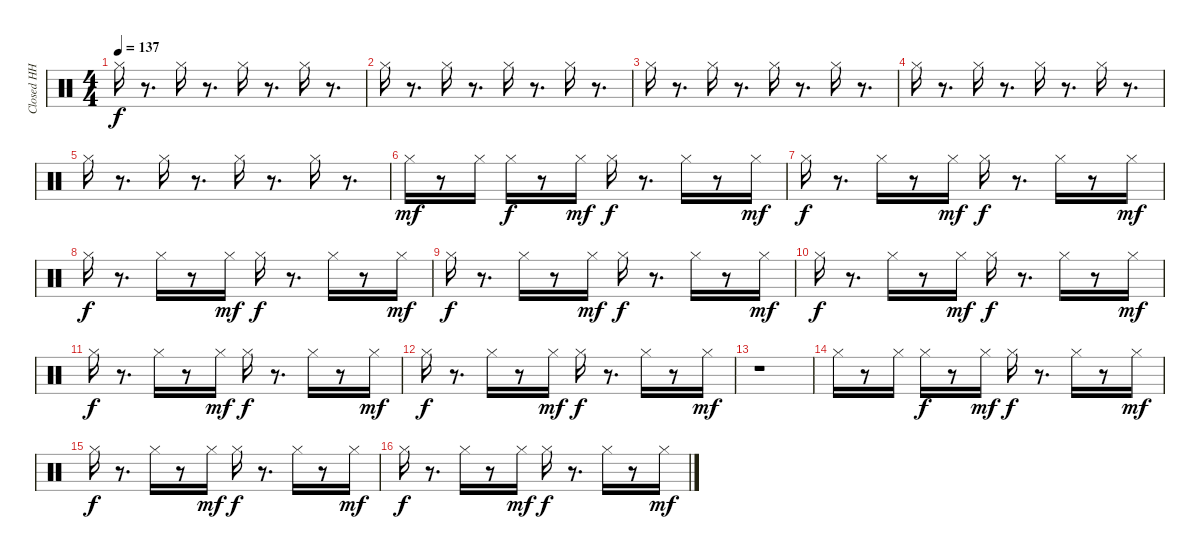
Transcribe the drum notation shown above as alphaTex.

\track ("Closed HH" "Closed HH") {instrument percussion}
\staff {score}
\articulation defaults
\ts (4 4)
\tempo 137
\clef neutral
\ks c "Hi-Hat (closed)".16{dy f}
r.8{d} "Hi-Hat (closed)".16 r.8{d} "Hi-Hat (closed)".16 r.8{d} "Hi-Hat (closed)".16 r.8{d} |
"Hi-Hat (closed)".16 r.8{d} "Hi-Hat (closed)".16 r.8{d} "Hi-Hat (closed)".16 r.8{d} "Hi-Hat (closed)".16 r.8{d} |
"Hi-Hat (closed)".16 r.8{d} "Hi-Hat (closed)".16 r.8{d} "Hi-Hat (closed)".16 r.8{d} "Hi-Hat (closed)".16 r.8{d} |
"Hi-Hat (closed)".16 r.8{d} "Hi-Hat (closed)".16 r.8{d} "Hi-Hat (closed)".16 r.8{d} "Hi-Hat (closed)".16 r.8{d} |
"Hi-Hat (closed)".16 r.8{d} "Hi-Hat (closed)".16 r.8{d} "Hi-Hat (closed)".16 r.8{d} "Hi-Hat (closed)".16 r.8{d} |
"Hi-Hat (closed)".16{dy mf} r.8 "Hi-Hat (closed)".16 "Hi-Hat (closed)".16{dy f} r.8 "Hi-Hat (closed)".16{dy mf} "Hi-Hat (closed)".16{dy f} r.8{d} "Hi-Hat (closed)".16 r.8 "Hi-Hat (closed)".16{dy mf} |
"Hi-Hat (closed)".16{dy f} r.8{d} "Hi-Hat (closed)".16 r.8 "Hi-Hat (closed)".16{dy mf} "Hi-Hat (closed)".16{dy f} r.8{d} "Hi-Hat (closed)".16 r.8 "Hi-Hat (closed)".16{dy mf} |
"Hi-Hat (closed)".16{dy f} r.8{d} "Hi-Hat (closed)".16 r.8 "Hi-Hat (closed)".16{dy mf} "Hi-Hat (closed)".16{dy f} r.8{d} "Hi-Hat (closed)".16 r.8 "Hi-Hat (closed)".16{dy mf} |
"Hi-Hat (closed)".16{dy f} r.8{d} "Hi-Hat (closed)".16 r.8 "Hi-Hat (closed)".16{dy mf} "Hi-Hat (closed)".16{dy f} r.8{d} "Hi-Hat (closed)".16 r.8 "Hi-Hat (closed)".16{dy mf} |
"Hi-Hat (closed)".16{dy f} r.8{d} "Hi-Hat (closed)".16 r.8 "Hi-Hat (closed)".16{dy mf} "Hi-Hat (closed)".16{dy f} r.8{d} "Hi-Hat (closed)".16 r.8 "Hi-Hat (closed)".16{dy mf} |
"Hi-Hat (closed)".16{dy f} r.8{d} "Hi-Hat (closed)".16 r.8 "Hi-Hat (closed)".16{dy mf} "Hi-Hat (closed)".16{dy f} r.8{d} "Hi-Hat (closed)".16 r.8 "Hi-Hat (closed)".16{dy mf} |
"Hi-Hat (closed)".16{dy f} r.8{d} "Hi-Hat (closed)".16 r.8 "Hi-Hat (closed)".16{dy mf} "Hi-Hat (closed)".16{dy f} r.8{d} "Hi-Hat (closed)".16 r.8 "Hi-Hat (closed)".16{dy mf} |
r.1 |
"Hi-Hat (closed)".16 r.8 "Hi-Hat (closed)".16 "Hi-Hat (closed)".16{dy f} r.8 "Hi-Hat (closed)".16{dy mf} "Hi-Hat (closed)".16{dy f} r.8{d} "Hi-Hat (closed)".16 r.8 "Hi-Hat (closed)".16{dy mf} |
"Hi-Hat (closed)".16{dy f} r.8{d} "Hi-Hat (closed)".16 r.8 "Hi-Hat (closed)".16{dy mf} "Hi-Hat (closed)".16{dy f} r.8{d} "Hi-Hat (closed)".16 r.8 "Hi-Hat (closed)".16{dy mf} |
"Hi-Hat (closed)".16{dy f} r.8{d} "Hi-Hat (closed)".16 r.8 "Hi-Hat (closed)".16{dy mf} "Hi-Hat (closed)".16{dy f} r.8{d} "Hi-Hat (closed)".16 r.8 "Hi-Hat (closed)".16{dy mf}
